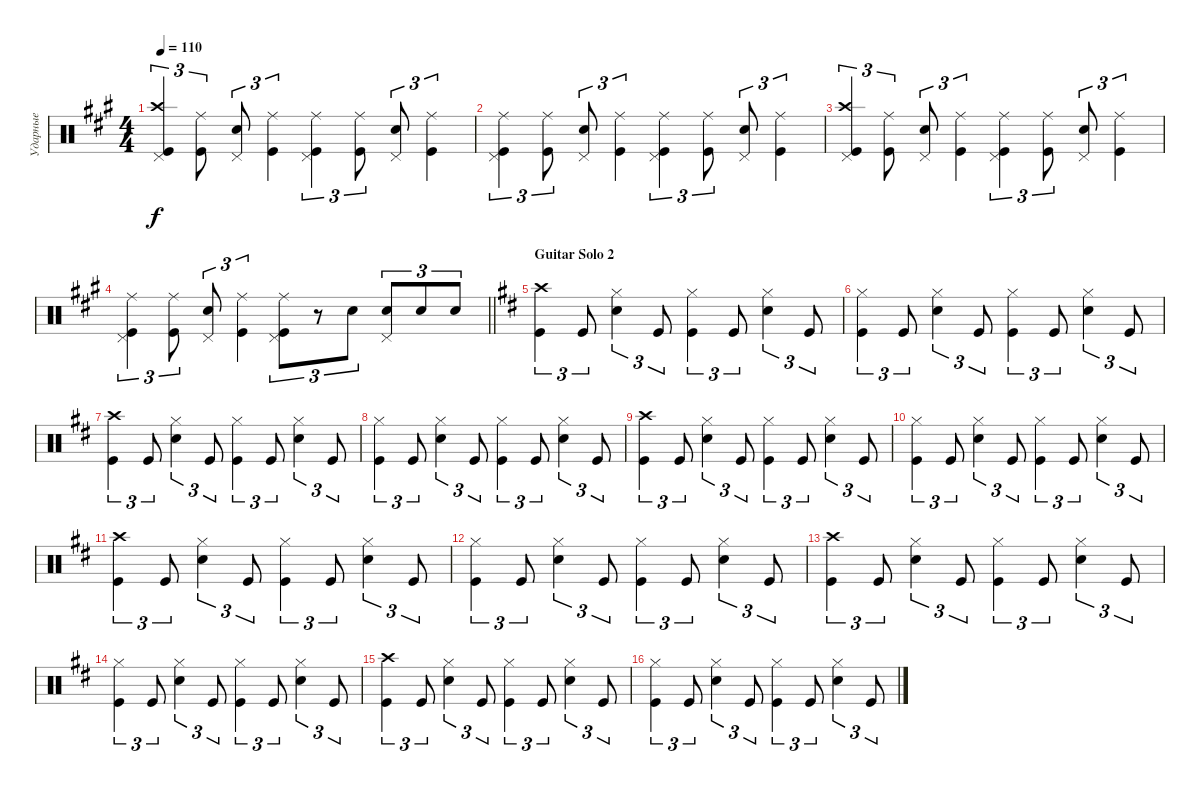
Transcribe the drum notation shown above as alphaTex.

\track ("Ударные" "Ударные") {instrument percussion}
\staff {score}
\articulation defaults
\ts (4 4)
\tempo 110
\clef neutral
\ks f#minor
("Kick (hit)" "Crash high (hit)" "Pedal Hi-Hat (hit)").4{tu (3 2) dy f} ("Kick (hit)" "Ride (middle)").8{tu (3 2)} ("Snare (hit) 2" "Pedal Hi-Hat (hit)").8{tu (3 2)} ("Kick (hit)" "Ride (middle)").4{tu (3 2)} ("Kick (hit)" "Ride (middle)" "Pedal Hi-Hat (hit)").4{tu (3 2)} ("Kick (hit)" "Ride (middle)").8{tu (3 2)} ("Snare (hit) 2" "Pedal Hi-Hat (hit)").8{tu (3 2)} ("Kick (hit)" "Ride (middle)").4{tu (3 2)} |
("Kick (hit)" "Ride (middle)" "Pedal Hi-Hat (hit)").4{tu (3 2)} ("Kick (hit)" "Ride (middle)").8{tu (3 2)} ("Snare (hit) 2" "Pedal Hi-Hat (hit)").8{tu (3 2)} ("Kick (hit)" "Ride (middle)").4{tu (3 2)} ("Kick (hit)" "Ride (middle)" "Pedal Hi-Hat (hit)").4{tu (3 2)} ("Kick (hit)" "Ride (middle)").8{tu (3 2)} ("Snare (hit) 2" "Pedal Hi-Hat (hit)").8{tu (3 2)} ("Kick (hit)" "Ride (middle)").4{tu (3 2)} |
("Kick (hit)" "Crash high (hit)" "Pedal Hi-Hat (hit)").4{tu (3 2)} ("Kick (hit)" "Ride (middle)").8{tu (3 2)} ("Snare (hit) 2" "Pedal Hi-Hat (hit)").8{tu (3 2)} ("Kick (hit)" "Ride (middle)").4{tu (3 2)} ("Kick (hit)" "Ride (middle)" "Pedal Hi-Hat (hit)").4{tu (3 2)} ("Kick (hit)" "Ride (middle)").8{tu (3 2)} ("Snare (hit) 2" "Pedal Hi-Hat (hit)").8{tu (3 2)} ("Kick (hit)" "Ride (middle)").4{tu (3 2)} |
\barLineRight lightlight
("Kick (hit)" "Ride (middle)" "Pedal Hi-Hat (hit)").4{tu (3 2)} ("Kick (hit)" "Ride (middle)").8{tu (3 2)} ("Snare (hit) 2" "Pedal Hi-Hat (hit)").8{tu (3 2)} ("Kick (hit)" "Ride (middle)").4{tu (3 2)} ("Kick (hit)" "Ride (middle)" "Pedal Hi-Hat (hit)").8{tu (3 2)} r.8{tu (3 2)} "Snare (hit) 2".8{tu (3 2)} ("Snare (hit) 2" "Pedal Hi-Hat (hit)").8{tu (3 2)} "Snare (hit) 2".8{tu (3 2)} "Snare (hit) 2".8{tu (3 2)} |
\section ("" "Guitar Solo 2")
\ks bminor
("Kick (hit)" "Crash high (hit)").4{tu (3 2)} "Kick (hit)".8{tu (3 2)} ("Snare (hit) 2" "Hi-Hat (closed)").4{tu (3 2)} "Kick (hit)".8{tu (3 2)} ("Kick (hit)" "Hi-Hat (closed)").4{tu (3 2)} "Kick (hit)".8{tu (3 2)} ("Snare (hit) 2" "Hi-Hat (closed)").4{tu (3 2)} "Kick (hit)".8{tu (3 2)} |
("Kick (hit)" "Hi-Hat (closed)").4{tu (3 2)} "Kick (hit)".8{tu (3 2)} ("Snare (hit) 2" "Hi-Hat (closed)").4{tu (3 2)} "Kick (hit)".8{tu (3 2)} ("Kick (hit)" "Hi-Hat (closed)").4{tu (3 2)} "Kick (hit)".8{tu (3 2)} ("Snare (hit) 2" "Hi-Hat (closed)").4{tu (3 2)} "Kick (hit)".8{tu (3 2)} |
("Kick (hit)" "Crash high (hit)").4{tu (3 2)} "Kick (hit)".8{tu (3 2)} ("Snare (hit) 2" "Hi-Hat (closed)").4{tu (3 2)} "Kick (hit)".8{tu (3 2)} ("Kick (hit)" "Hi-Hat (closed)").4{tu (3 2)} "Kick (hit)".8{tu (3 2)} ("Snare (hit) 2" "Hi-Hat (closed)").4{tu (3 2)} "Kick (hit)".8{tu (3 2)} |
("Kick (hit)" "Hi-Hat (closed)").4{tu (3 2)} "Kick (hit)".8{tu (3 2)} ("Snare (hit) 2" "Hi-Hat (closed)").4{tu (3 2)} "Kick (hit)".8{tu (3 2)} ("Kick (hit)" "Hi-Hat (closed)").4{tu (3 2)} "Kick (hit)".8{tu (3 2)} ("Snare (hit) 2" "Hi-Hat (closed)").4{tu (3 2)} "Kick (hit)".8{tu (3 2)} |
("Kick (hit)" "Crash high (hit)").4{tu (3 2)} "Kick (hit)".8{tu (3 2)} ("Snare (hit) 2" "Hi-Hat (closed)").4{tu (3 2)} "Kick (hit)".8{tu (3 2)} ("Kick (hit)" "Hi-Hat (closed)").4{tu (3 2)} "Kick (hit)".8{tu (3 2)} ("Snare (hit) 2" "Hi-Hat (closed)").4{tu (3 2)} "Kick (hit)".8{tu (3 2)} |
("Kick (hit)" "Hi-Hat (closed)").4{tu (3 2)} "Kick (hit)".8{tu (3 2)} ("Snare (hit) 2" "Hi-Hat (closed)").4{tu (3 2)} "Kick (hit)".8{tu (3 2)} ("Kick (hit)" "Hi-Hat (closed)").4{tu (3 2)} "Kick (hit)".8{tu (3 2)} ("Snare (hit) 2" "Hi-Hat (closed)").4{tu (3 2)} "Kick (hit)".8{tu (3 2)} |
("Kick (hit)" "Crash high (hit)").4{tu (3 2)} "Kick (hit)".8{tu (3 2)} ("Snare (hit) 2" "Hi-Hat (closed)").4{tu (3 2)} "Kick (hit)".8{tu (3 2)} ("Kick (hit)" "Hi-Hat (closed)").4{tu (3 2)} "Kick (hit)".8{tu (3 2)} ("Snare (hit) 2" "Hi-Hat (closed)").4{tu (3 2)} "Kick (hit)".8{tu (3 2)} |
("Kick (hit)" "Hi-Hat (closed)").4{tu (3 2)} "Kick (hit)".8{tu (3 2)} ("Snare (hit) 2" "Hi-Hat (closed)").4{tu (3 2)} "Kick (hit)".8{tu (3 2)} ("Kick (hit)" "Hi-Hat (closed)").4{tu (3 2)} "Kick (hit)".8{tu (3 2)} ("Snare (hit) 2" "Hi-Hat (closed)").4{tu (3 2)} "Kick (hit)".8{tu (3 2)} |
("Kick (hit)" "Crash high (hit)").4{tu (3 2)} "Kick (hit)".8{tu (3 2)} ("Snare (hit) 2" "Hi-Hat (closed)").4{tu (3 2)} "Kick (hit)".8{tu (3 2)} ("Kick (hit)" "Hi-Hat (closed)").4{tu (3 2)} "Kick (hit)".8{tu (3 2)} ("Snare (hit) 2" "Hi-Hat (closed)").4{tu (3 2)} "Kick (hit)".8{tu (3 2)} |
("Kick (hit)" "Hi-Hat (closed)").4{tu (3 2)} "Kick (hit)".8{tu (3 2)} ("Snare (hit) 2" "Hi-Hat (closed)").4{tu (3 2)} "Kick (hit)".8{tu (3 2)} ("Kick (hit)" "Hi-Hat (closed)").4{tu (3 2)} "Kick (hit)".8{tu (3 2)} ("Snare (hit) 2" "Hi-Hat (closed)").4{tu (3 2)} "Kick (hit)".8{tu (3 2)} |
("Kick (hit)" "Crash high (hit)").4{tu (3 2)} "Kick (hit)".8{tu (3 2)} ("Snare (hit) 2" "Hi-Hat (closed)").4{tu (3 2)} "Kick (hit)".8{tu (3 2)} ("Kick (hit)" "Hi-Hat (closed)").4{tu (3 2)} "Kick (hit)".8{tu (3 2)} ("Snare (hit) 2" "Hi-Hat (closed)").4{tu (3 2)} "Kick (hit)".8{tu (3 2)} |
("Kick (hit)" "Hi-Hat (closed)").4{tu (3 2)} "Kick (hit)".8{tu (3 2)} ("Snare (hit) 2" "Hi-Hat (closed)").4{tu (3 2)} "Kick (hit)".8{tu (3 2)} ("Kick (hit)" "Hi-Hat (closed)").4{tu (3 2)} "Kick (hit)".8{tu (3 2)} ("Snare (hit) 2" "Hi-Hat (closed)").4{tu (3 2)} "Kick (hit)".8{tu (3 2)}
